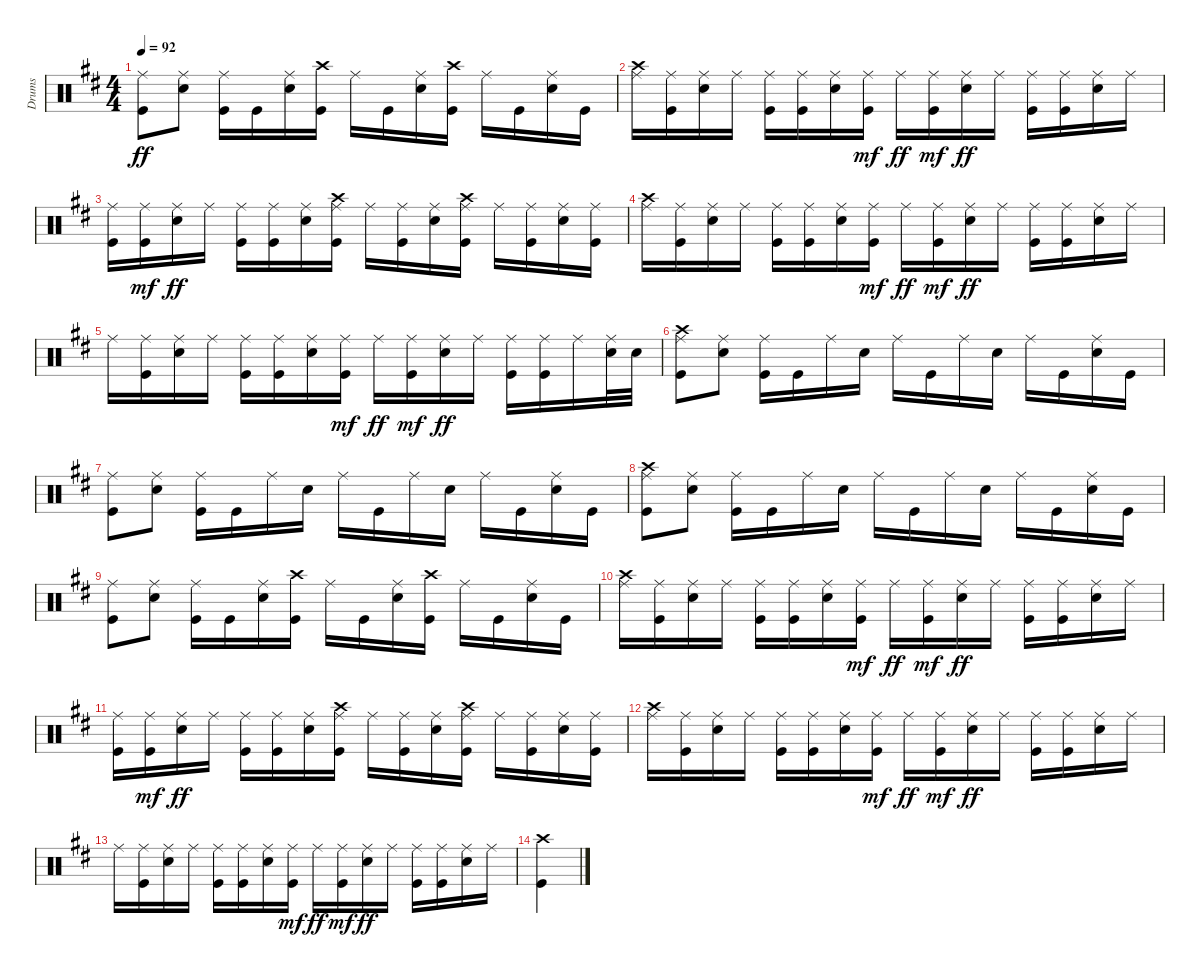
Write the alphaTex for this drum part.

\track ("Drums" "Drums") {instrument percussion}
\staff {score}
\articulation defaults
\ts (4 4)
\tempo 92
\clef neutral
\ks d
("Ride (middle)" "Kick (hit)").8{dy ff} ("Ride (middle)" "Snare (hit) 2").8 ("Ride (middle)" "Kick (hit)").16 "Kick (hit)".16 ("Ride (middle)" "Snare (hit) 2").16 ("Crash high (hit)" "Kick (hit)").16 "Ride (middle)".16 "Kick (hit)".16 ("Ride (middle)" "Snare (hit) 2").16 ("Crash high (hit)" "Kick (hit)").16 "Ride (middle)".16 "Kick (hit)".16 ("Ride (middle)" "Snare (hit) 2").16 "Kick (hit)".16 |
("Ride (middle)" "Crash high (hit)").16 ("Ride (middle)" "Kick (hit)").16 ("Ride (middle)" "Snare (hit) 2").16 "Ride (middle)".16 ("Ride (middle)" "Kick (hit)").16 ("Ride (middle)" "Kick (hit)").16 ("Ride (middle)" "Snare (hit) 2").16 ("Ride (middle)" "Kick (hit)").16{dy mf} "Ride (middle)".16{dy ff} ("Ride (middle)" "Kick (hit)").16{dy mf} ("Ride (middle)" "Snare (hit) 2").16{dy ff} "Ride (middle)".16 ("Ride (middle)" "Kick (hit)").16 ("Ride (middle)" "Kick (hit)").16 ("Ride (middle)" "Snare (hit) 2").16 "Ride (middle)".16 |
("Ride (middle)" "Kick (hit)").16 ("Ride (middle)" "Kick (hit)").16{dy mf} ("Ride (middle)" "Snare (hit) 2").16{dy ff} "Ride (middle)".16 ("Ride (middle)" "Kick (hit)").16 ("Ride (middle)" "Kick (hit)").16 ("Ride (middle)" "Snare (hit) 2").16 ("Ride (middle)" "Crash high (hit)" "Kick (hit)").16 "Ride (middle)".16 ("Ride (middle)" "Kick (hit)").16 ("Ride (middle)" "Snare (hit) 2").16 ("Ride (middle)" "Crash high (hit)" "Kick (hit)").16 "Ride (middle)".16 ("Ride (middle)" "Kick (hit)").16 ("Ride (middle)" "Snare (hit) 2").16 ("Ride (middle)" "Kick (hit)").16 |
("Ride (middle)" "Crash high (hit)").16 ("Ride (middle)" "Kick (hit)").16 ("Ride (middle)" "Snare (hit) 2").16 "Ride (middle)".16 ("Ride (middle)" "Kick (hit)").16 ("Ride (middle)" "Kick (hit)").16 ("Ride (middle)" "Snare (hit) 2").16 ("Ride (middle)" "Kick (hit)").16{dy mf} "Ride (middle)".16{dy ff} ("Ride (middle)" "Kick (hit)").16{dy mf} ("Ride (middle)" "Snare (hit) 2").16{dy ff} "Ride (middle)".16 ("Ride (middle)" "Kick (hit)").16 ("Ride (middle)" "Kick (hit)").16 ("Ride (middle)" "Snare (hit) 2").16 "Ride (middle)".16 |
"Ride (middle)".16 ("Ride (middle)" "Kick (hit)").16 ("Ride (middle)" "Snare (hit) 2").16 "Ride (middle)".16 ("Ride (middle)" "Kick (hit)").16 ("Ride (middle)" "Kick (hit)").16 ("Ride (middle)" "Snare (hit) 2").16 ("Ride (middle)" "Kick (hit)").16{dy mf} "Ride (middle)".16{dy ff} ("Ride (middle)" "Kick (hit)").16{dy mf} ("Ride (middle)" "Snare (hit) 2").16{dy ff} "Ride (middle)".16 ("Ride (middle)" "Kick (hit)").16 ("Ride (middle)" "Kick (hit)").16 "Ride (middle)".16 ("Ride (middle)" "Snare (hit) 2").32 "Snare (hit) 2".32 |
("Crash high (hit)" "Ride (middle)" "Kick (hit)").8 ("Ride (middle)" "Snare (hit) 2").8 ("Ride (middle)" "Kick (hit)").16 "Kick (hit)".16 "Ride (middle)".16 "Snare (hit) 2".16 "Ride (middle)".16 "Kick (hit)".16 "Ride (middle)".16 "Snare (hit) 2".16 "Ride (middle)".16 "Kick (hit)".16 ("Ride (middle)" "Snare (hit) 2").16 "Kick (hit)".16 |
("Ride (middle)" "Kick (hit)").8 ("Ride (middle)" "Snare (hit) 2").8 ("Ride (middle)" "Kick (hit)").16 "Kick (hit)".16 "Ride (middle)".16 "Snare (hit) 2".16 "Ride (middle)".16 "Kick (hit)".16 "Ride (middle)".16 "Snare (hit) 2".16 "Ride (middle)".16 "Kick (hit)".16 ("Ride (middle)" "Snare (hit) 2").16 "Kick (hit)".16 |
("Crash high (hit)" "Ride (middle)" "Kick (hit)").8 ("Ride (middle)" "Snare (hit) 2").8 ("Ride (middle)" "Kick (hit)").16 "Kick (hit)".16 "Ride (middle)".16 "Snare (hit) 2".16 "Ride (middle)".16 "Kick (hit)".16 "Ride (middle)".16 "Snare (hit) 2".16 "Ride (middle)".16 "Kick (hit)".16 ("Ride (middle)" "Snare (hit) 2").16 "Kick (hit)".16 |
("Ride (middle)" "Kick (hit)").8 ("Ride (middle)" "Snare (hit) 2").8 ("Ride (middle)" "Kick (hit)").16 "Kick (hit)".16 ("Ride (middle)" "Snare (hit) 2").16 ("Crash high (hit)" "Kick (hit)").16 "Ride (middle)".16 "Kick (hit)".16 ("Ride (middle)" "Snare (hit) 2").16 ("Crash high (hit)" "Kick (hit)").16 "Ride (middle)".16 "Kick (hit)".16 ("Ride (middle)" "Snare (hit) 2").16 "Kick (hit)".16 |
("Ride (middle)" "Crash high (hit)").16 ("Ride (middle)" "Kick (hit)").16 ("Ride (middle)" "Snare (hit) 2").16 "Ride (middle)".16 ("Ride (middle)" "Kick (hit)").16 ("Ride (middle)" "Kick (hit)").16 ("Ride (middle)" "Snare (hit) 2").16 ("Ride (middle)" "Kick (hit)").16{dy mf} "Ride (middle)".16{dy ff} ("Ride (middle)" "Kick (hit)").16{dy mf} ("Ride (middle)" "Snare (hit) 2").16{dy ff} "Ride (middle)".16 ("Ride (middle)" "Kick (hit)").16 ("Ride (middle)" "Kick (hit)").16 ("Ride (middle)" "Snare (hit) 2").16 "Ride (middle)".16 |
("Ride (middle)" "Kick (hit)").16 ("Ride (middle)" "Kick (hit)").16{dy mf} ("Ride (middle)" "Snare (hit) 2").16{dy ff} "Ride (middle)".16 ("Ride (middle)" "Kick (hit)").16 ("Ride (middle)" "Kick (hit)").16 ("Ride (middle)" "Snare (hit) 2").16 ("Ride (middle)" "Crash high (hit)" "Kick (hit)").16 "Ride (middle)".16 ("Ride (middle)" "Kick (hit)").16 ("Ride (middle)" "Snare (hit) 2").16 ("Ride (middle)" "Crash high (hit)" "Kick (hit)").16 "Ride (middle)".16 ("Ride (middle)" "Kick (hit)").16 ("Ride (middle)" "Snare (hit) 2").16 ("Ride (middle)" "Kick (hit)").16 |
("Ride (middle)" "Crash high (hit)").16 ("Ride (middle)" "Kick (hit)").16 ("Ride (middle)" "Snare (hit) 2").16 "Ride (middle)".16 ("Ride (middle)" "Kick (hit)").16 ("Ride (middle)" "Kick (hit)").16 ("Ride (middle)" "Snare (hit) 2").16 ("Ride (middle)" "Kick (hit)").16{dy mf} "Ride (middle)".16{dy ff} ("Ride (middle)" "Kick (hit)").16{dy mf} ("Ride (middle)" "Snare (hit) 2").16{dy ff} "Ride (middle)".16 ("Ride (middle)" "Kick (hit)").16 ("Ride (middle)" "Kick (hit)").16 ("Ride (middle)" "Snare (hit) 2").16 "Ride (middle)".16 |
"Ride (middle)".16 ("Ride (middle)" "Kick (hit)").16 ("Ride (middle)" "Snare (hit) 2").16 "Ride (middle)".16 ("Ride (middle)" "Kick (hit)").16 ("Ride (middle)" "Kick (hit)").16 ("Ride (middle)" "Snare (hit) 2").16 ("Ride (middle)" "Kick (hit)").16{dy mf} "Ride (middle)".16{dy ff} ("Ride (middle)" "Kick (hit)").16{dy mf} ("Ride (middle)" "Snare (hit) 2").16{dy ff} "Ride (middle)".16 ("Ride (middle)" "Kick (hit)").16 ("Ride (middle)" "Kick (hit)").16 ("Ride (middle)" "Snare (hit) 2").16 "Ride (middle)".16 |
("Crash high (hit)" "Kick (hit)").4
